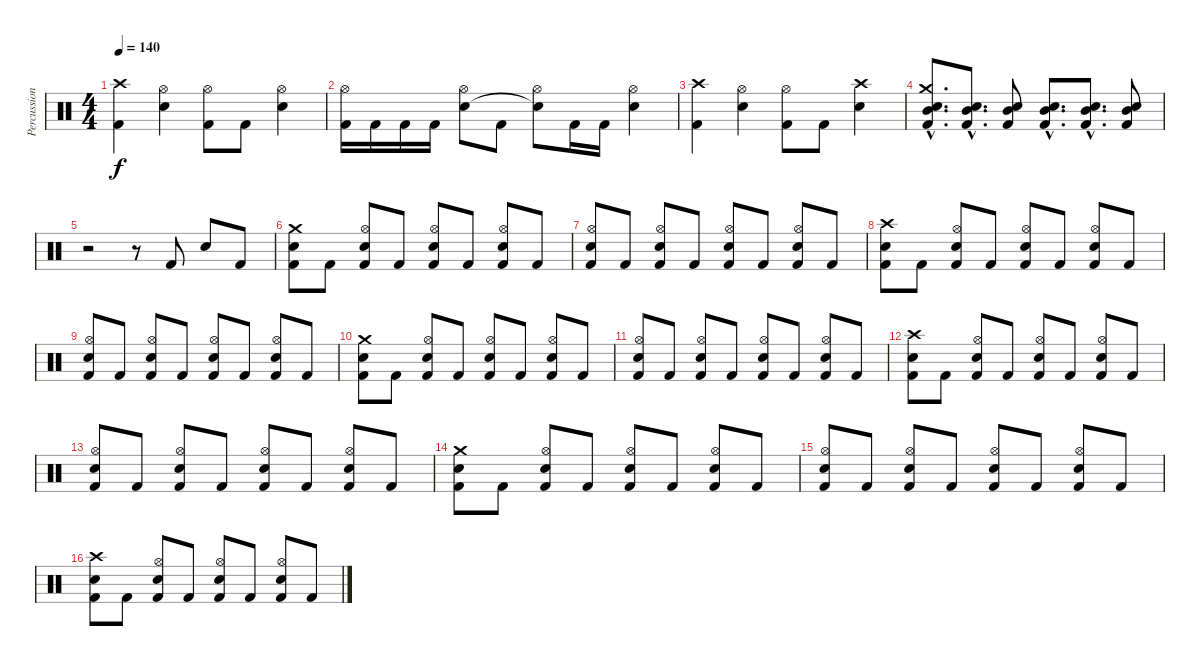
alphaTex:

\track ("Percussion" "Percussion") {instrument percussion}
\staff {score}
\articulation defaults
\ts (4 4)
\tempo 140
\clef neutral
\ks c
("Crash high (hit)" "Kick (hit) 2").4{dy f} ("Hi-Hat (open)" "Snare (hit) 2").4 ("Hi-Hat (open)" "Kick (hit) 2").8 "Kick (hit) 2".8 ("Hi-Hat (open)" "Snare (hit) 2").4 |
("Hi-Hat (open)" "Kick (hit) 2").16 "Kick (hit) 2".16 "Kick (hit) 2".16 "Kick (hit) 2".16 ("Hi-Hat (open)" "Snare (hit) 2").8 "Kick (hit) 2".8 ("Hi-Hat (open)" "Snare (hit)"{t}).8 "Kick (hit) 2".16 "Kick (hit) 2".16 ("Hi-Hat (open)" "Snare (hit) 2").4 |
("Crash high (hit)" "Kick (hit) 2").4 ("Hi-Hat (open)" "Snare (hit) 2").4 ("Hi-Hat (open)" "Kick (hit) 2").8 "Kick (hit) 2".8 ("Crash high (hit)" "Snare (hit) 2").4 |
("Crash medium (hit)"{hac} "Mid Tom (hit)"{hac} "Snare (hit) 2"{hac} "Kick (hit) 2"{hac}).8{d} ("Mid Tom (hit)"{hac} "Snare (hit) 2"{hac} "Kick (hit) 2"{hac}).8{d} ("Mid Tom (hit)" "Snare (hit) 2" "Kick (hit) 2").8 ("Mid Tom (hit)"{hac} "Snare (hit) 2"{hac} "Kick (hit) 2"{hac}).8{d} ("Mid Tom (hit)"{hac} "Snare (hit) 2"{hac} "Kick (hit) 2"{hac}).8{d} ("Mid Tom (hit)" "Snare (hit) 2" "Kick (hit) 2").8 |
r.2 r.8 "Kick (hit) 2".8 "Snare (hit) 2".8 "Kick (hit) 2".8 |
("Crash medium (hit)" "Snare (hit) 2" "Kick (hit) 2").8 "Kick (hit) 2".8 ("Hi-Hat (open)" "Snare (hit) 2" "Kick (hit) 2").8 "Kick (hit) 2".8 ("Hi-Hat (open)" "Snare (hit) 2" "Kick (hit) 2").8 "Kick (hit) 2".8 ("Hi-Hat (open)" "Snare (hit) 2" "Kick (hit) 2").8 "Kick (hit) 2".8 |
("Hi-Hat (open)" "Snare (hit) 2" "Kick (hit) 2").8 "Kick (hit) 2".8 ("Hi-Hat (open)" "Snare (hit) 2" "Kick (hit) 2").8 "Kick (hit) 2".8 ("Hi-Hat (open)" "Snare (hit) 2" "Kick (hit) 2").8 "Kick (hit) 2".8 ("Hi-Hat (open)" "Snare (hit) 2" "Kick (hit) 2").8 "Kick (hit) 2".8 |
("Crash high (hit)" "Snare (hit) 2" "Kick (hit) 2").8 "Kick (hit) 2".8 ("Hi-Hat (open)" "Snare (hit) 2" "Kick (hit) 2").8 "Kick (hit) 2".8 ("Hi-Hat (open)" "Snare (hit) 2" "Kick (hit) 2").8 "Kick (hit) 2".8 ("Hi-Hat (open)" "Snare (hit) 2" "Kick (hit) 2").8 "Kick (hit) 2".8 |
("Hi-Hat (open)" "Snare (hit) 2" "Kick (hit) 2").8 "Kick (hit) 2".8 ("Hi-Hat (open)" "Snare (hit) 2" "Kick (hit) 2").8 "Kick (hit) 2".8 ("Hi-Hat (open)" "Snare (hit) 2" "Kick (hit) 2").8 "Kick (hit) 2".8 ("Hi-Hat (open)" "Snare (hit) 2" "Kick (hit) 2").8 "Kick (hit) 2".8 |
("Crash medium (hit)" "Snare (hit) 2" "Kick (hit) 2").8 "Kick (hit) 2".8 ("Hi-Hat (open)" "Snare (hit) 2" "Kick (hit) 2").8 "Kick (hit) 2".8 ("Hi-Hat (open)" "Snare (hit) 2" "Kick (hit) 2").8 "Kick (hit) 2".8 ("Hi-Hat (open)" "Snare (hit) 2" "Kick (hit) 2").8 "Kick (hit) 2".8 |
("Hi-Hat (open)" "Snare (hit) 2" "Kick (hit) 2").8 "Kick (hit) 2".8 ("Hi-Hat (open)" "Snare (hit) 2" "Kick (hit) 2").8 "Kick (hit) 2".8 ("Hi-Hat (open)" "Snare (hit) 2" "Kick (hit) 2").8 "Kick (hit) 2".8 ("Hi-Hat (open)" "Snare (hit) 2" "Kick (hit) 2").8 "Kick (hit) 2".8 |
("Crash high (hit)" "Snare (hit) 2" "Kick (hit) 2").8 "Kick (hit) 2".8 ("Hi-Hat (open)" "Snare (hit) 2" "Kick (hit) 2").8 "Kick (hit) 2".8 ("Hi-Hat (open)" "Snare (hit) 2" "Kick (hit) 2").8 "Kick (hit) 2".8 ("Hi-Hat (open)" "Snare (hit) 2" "Kick (hit) 2").8 "Kick (hit) 2".8 |
("Hi-Hat (open)" "Snare (hit) 2" "Kick (hit) 2").8 "Kick (hit) 2".8 ("Hi-Hat (open)" "Snare (hit) 2" "Kick (hit) 2").8 "Kick (hit) 2".8 ("Hi-Hat (open)" "Snare (hit) 2" "Kick (hit) 2").8 "Kick (hit) 2".8 ("Hi-Hat (open)" "Snare (hit) 2" "Kick (hit) 2").8 "Kick (hit) 2".8 |
("Crash medium (hit)" "Snare (hit) 2" "Kick (hit) 2").8 "Kick (hit) 2".8 ("Hi-Hat (open)" "Snare (hit) 2" "Kick (hit) 2").8 "Kick (hit) 2".8 ("Hi-Hat (open)" "Snare (hit) 2" "Kick (hit) 2").8 "Kick (hit) 2".8 ("Hi-Hat (open)" "Snare (hit) 2" "Kick (hit) 2").8 "Kick (hit) 2".8 |
("Hi-Hat (open)" "Snare (hit) 2" "Kick (hit) 2").8 "Kick (hit) 2".8 ("Hi-Hat (open)" "Snare (hit) 2" "Kick (hit) 2").8 "Kick (hit) 2".8 ("Hi-Hat (open)" "Snare (hit) 2" "Kick (hit) 2").8 "Kick (hit) 2".8 ("Hi-Hat (open)" "Snare (hit) 2" "Kick (hit) 2").8 "Kick (hit) 2".8 |
("Crash high (hit)" "Snare (hit) 2" "Kick (hit) 2").8 "Kick (hit) 2".8 ("Hi-Hat (open)" "Snare (hit) 2" "Kick (hit) 2").8 "Kick (hit) 2".8 ("Hi-Hat (open)" "Snare (hit) 2" "Kick (hit) 2").8 "Kick (hit) 2".8 ("Hi-Hat (open)" "Snare (hit) 2" "Kick (hit) 2").8 "Kick (hit) 2".8
